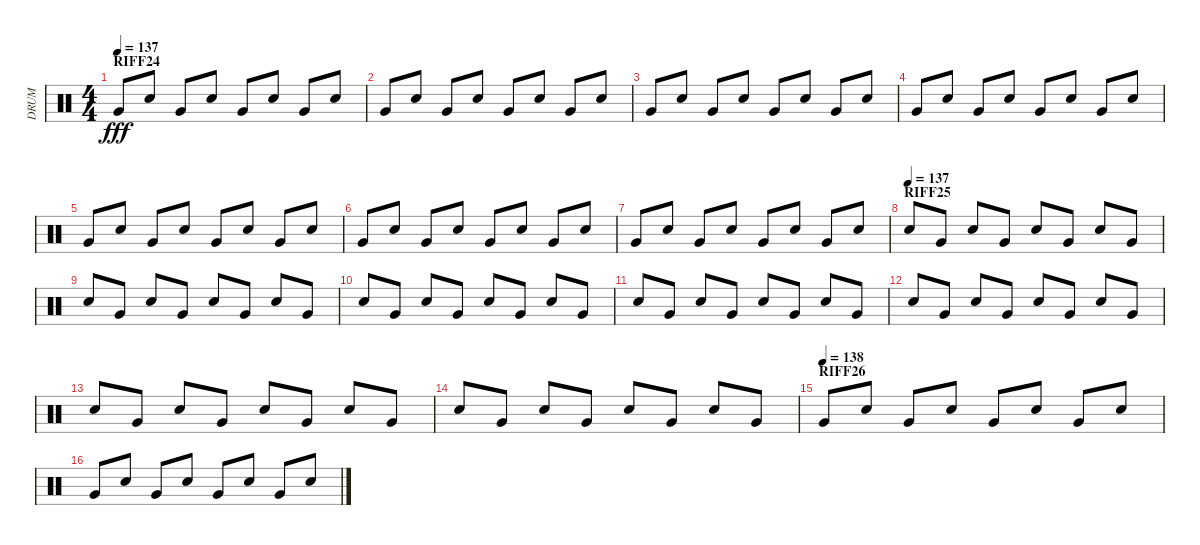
\track ("DRUM" "DRUM") {instrument percussion}
\staff {score}
\articulation defaults
\ts (4 4)
\section ("" "RIFF24")
\tempo 137
\clef neutral
\ks c "Very Low Tom (hit)".8{dy fff} "Electric Snare (hit)".8 "Very Low Tom (hit)".8 "Electric Snare (hit)".8 "Very Low Tom (hit)".8 "Electric Snare (hit)".8 "Very Low Tom (hit)".8 "Electric Snare (hit)".8
|
"Very Low Tom (hit)".8 "Electric Snare (hit)".8 "Very Low Tom (hit)".8 "Electric Snare (hit)".8 "Very Low Tom (hit)".8 "Electric Snare (hit)".8 "Very Low Tom (hit)".8 "Electric Snare (hit)".8 |
"Very Low Tom (hit)".8 "Electric Snare (hit)".8 "Very Low Tom (hit)".8 "Electric Snare (hit)".8 "Very Low Tom (hit)".8 "Electric Snare (hit)".8 "Very Low Tom (hit)".8 "Electric Snare (hit)".8 |
"Very Low Tom (hit)".8 "Electric Snare (hit)".8 "Very Low Tom (hit)".8 "Electric Snare (hit)".8 "Very Low Tom (hit)".8 "Electric Snare (hit)".8 "Very Low Tom (hit)".8 "Electric Snare (hit)".8 |
"Very Low Tom (hit)".8 "Electric Snare (hit)".8 "Very Low Tom (hit)".8 "Electric Snare (hit)".8 "Very Low Tom (hit)".8 "Electric Snare (hit)".8 "Very Low Tom (hit)".8 "Electric Snare (hit)".8 |
"Very Low Tom (hit)".8 "Electric Snare (hit)".8 "Very Low Tom (hit)".8 "Electric Snare (hit)".8 "Very Low Tom (hit)".8 "Electric Snare (hit)".8 "Very Low Tom (hit)".8 "Electric Snare (hit)".8 |
"Very Low Tom (hit)".8 "Electric Snare (hit)".8 "Very Low Tom (hit)".8 "Electric Snare (hit)".8 "Very Low Tom (hit)".8 "Electric Snare (hit)".8 "Very Low Tom (hit)".8 "Electric Snare (hit)".8 |
\section ("" "RIFF25")
\tempo (137)
"Electric Snare (hit)".8 "Very Low Tom (hit)".8 "Electric Snare (hit)".8 "Very Low Tom (hit)".8 "Electric Snare (hit)".8 "Very Low Tom (hit)".8 "Electric Snare (hit)".8 "Very Low Tom (hit)".8 |
"Electric Snare (hit)".8 "Very Low Tom (hit)".8 "Electric Snare (hit)".8 "Very Low Tom (hit)".8 "Electric Snare (hit)".8 "Very Low Tom (hit)".8 "Electric Snare (hit)".8 "Very Low Tom (hit)".8 |
"Electric Snare (hit)".8 "Very Low Tom (hit)".8 "Electric Snare (hit)".8 "Very Low Tom (hit)".8 "Electric Snare (hit)".8 "Very Low Tom (hit)".8 "Electric Snare (hit)".8 "Very Low Tom (hit)".8 |
"Electric Snare (hit)".8 "Very Low Tom (hit)".8 "Electric Snare (hit)".8 "Very Low Tom (hit)".8 "Electric Snare (hit)".8 "Very Low Tom (hit)".8 "Electric Snare (hit)".8 "Very Low Tom (hit)".8 |
"Electric Snare (hit)".8 "Very Low Tom (hit)".8 "Electric Snare (hit)".8 "Very Low Tom (hit)".8 "Electric Snare (hit)".8 "Very Low Tom (hit)".8 "Electric Snare (hit)".8 "Very Low Tom (hit)".8 |
"Electric Snare (hit)".8 "Very Low Tom (hit)".8 "Electric Snare (hit)".8 "Very Low Tom (hit)".8 "Electric Snare (hit)".8 "Very Low Tom (hit)".8 "Electric Snare (hit)".8 "Very Low Tom (hit)".8 |
"Electric Snare (hit)".8 "Very Low Tom (hit)".8 "Electric Snare (hit)".8 "Very Low Tom (hit)".8 "Electric Snare (hit)".8 "Very Low Tom (hit)".8 "Electric Snare (hit)".8 "Very Low Tom (hit)".8 |
\section ("" "RIFF26")
\tempo (138)
"Very Low Tom (hit)".8 "Electric Snare (hit)".8 "Very Low Tom (hit)".8 "Electric Snare (hit)".8 "Very Low Tom (hit)".8 "Electric Snare (hit)".8 "Very Low Tom (hit)".8 "Electric Snare (hit)".8 |
"Very Low Tom (hit)".8 "Electric Snare (hit)".8 "Very Low Tom (hit)".8 "Electric Snare (hit)".8 "Very Low Tom (hit)".8 "Electric Snare (hit)".8 "Very Low Tom (hit)".8 "Electric Snare (hit)".8
